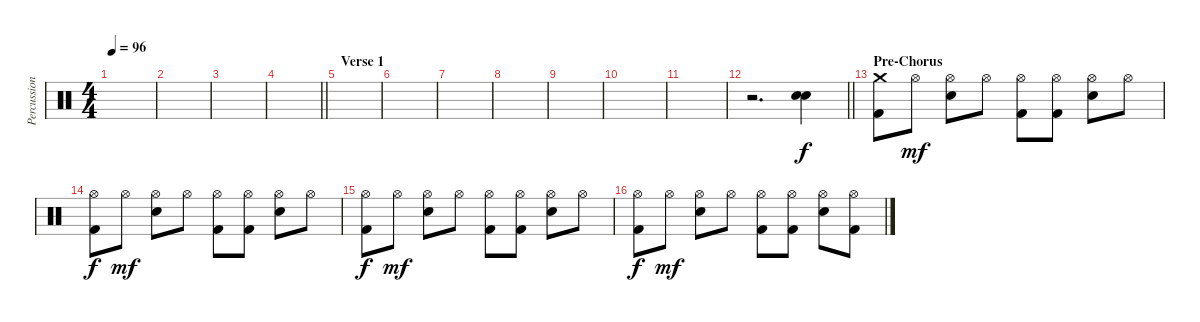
\track ("Percussion" "Percussion") {instrument percussion}
\staff {score}
\articulation defaults
\ts (4 4)
\tempo 96
\clef neutral
\ks c
|
|
|
\barLineRight lightlight
|
\section ("" "Verse 1")
|
|
|
|
|
|
|
\barLineRight lightlight
r.2{d} ("Snare (hit) 2" "Snare (hit) 2").4 |
\section ("" "Pre-Chorus")
("Crash medium (hit)" "Kick (hit) 2").8{dy f} "Hi-Hat (open)".8{dy mf} ("Hi-Hat (open)" "Electric Snare (hit)").8 "Hi-Hat (open)".8 ("Hi-Hat (open)" "Kick (hit) 2").8 ("Hi-Hat (open)" "Kick (hit) 2").8 ("Hi-Hat (open)" "Electric Snare (hit)").8 "Hi-Hat (open)".8 |
("Hi-Hat (open)" "Kick (hit) 2").8{dy f} "Hi-Hat (open)".8{dy mf} ("Hi-Hat (open)" "Electric Snare (hit)").8 "Hi-Hat (open)".8 ("Hi-Hat (open)" "Kick (hit) 2").8 ("Hi-Hat (open)" "Kick (hit) 2").8 ("Hi-Hat (open)" "Electric Snare (hit)").8 "Hi-Hat (open)".8 |
("Hi-Hat (open)" "Kick (hit) 2").8{dy f} "Hi-Hat (open)".8{dy mf} ("Hi-Hat (open)" "Electric Snare (hit)").8 "Hi-Hat (open)".8 ("Hi-Hat (open)" "Kick (hit) 2").8 ("Hi-Hat (open)" "Kick (hit) 2").8 ("Hi-Hat (open)" "Electric Snare (hit)").8 "Hi-Hat (open)".8 |
("Hi-Hat (open)" "Kick (hit) 2").8{dy f} "Hi-Hat (open)".8{dy mf} ("Hi-Hat (open)" "Electric Snare (hit)").8 "Hi-Hat (open)".8 ("Hi-Hat (open)" "Kick (hit) 2").8 ("Hi-Hat (open)" "Kick (hit) 2").8 ("Hi-Hat (open)" "Electric Snare (hit)").8 ("Hi-Hat (open)" "Kick (hit) 2").8
